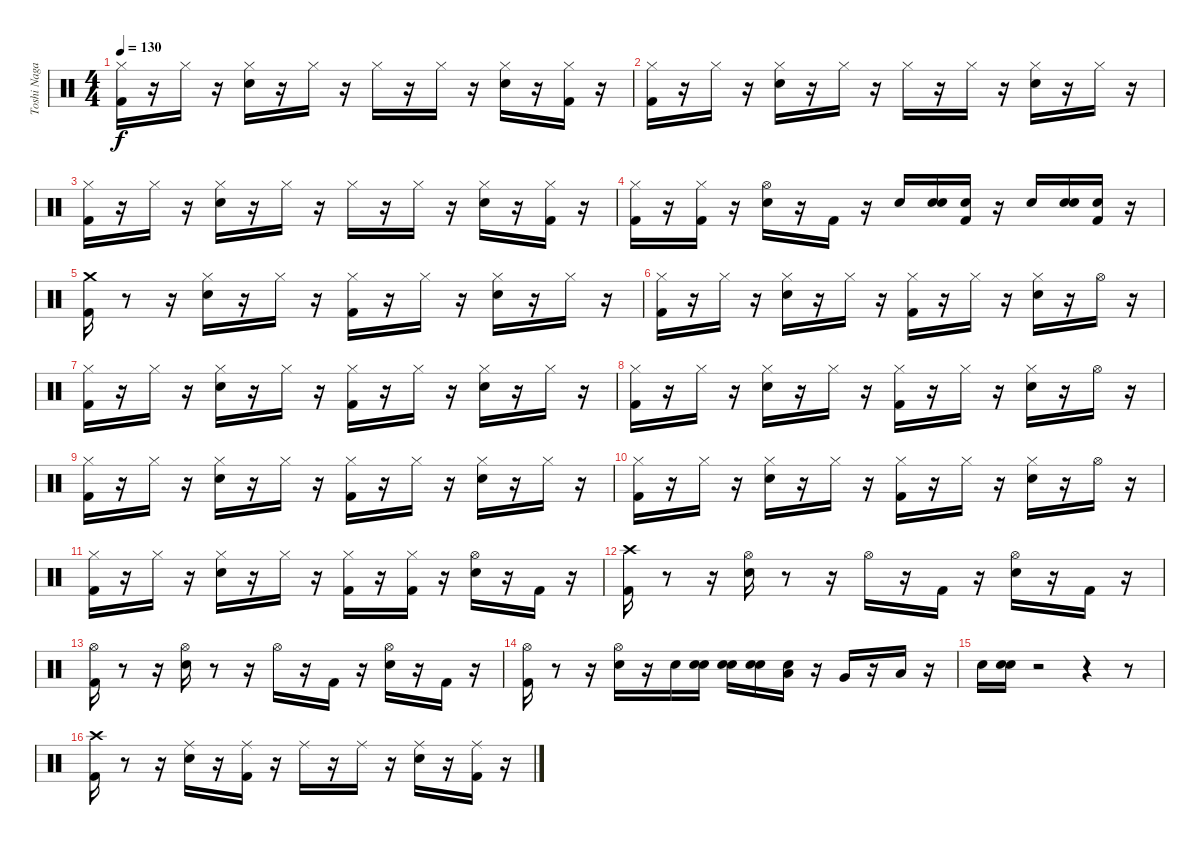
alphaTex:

\track ("Toshi Nagai" "Toshi Naga") {instrument percussion}
\staff {score}
\articulation defaults
\ts (4 4)
\tempo 130
\clef neutral
\ks c
("Kick (hit) 2" "Hi-Hat (closed)").16{dy f} r.16 "Hi-Hat (closed)".16 r.16 ("Electric Snare (hit)" "Hi-Hat (closed)").16 r.16 "Hi-Hat (closed)".16 r.16 "Hi-Hat (closed)".16 r.16 "Hi-Hat (closed)".16 r.16 ("Electric Snare (hit)" "Hi-Hat (closed)").16 r.16 ("Kick (hit) 2" "Hi-Hat (closed)").16 r.16 |
("Kick (hit) 2" "Hi-Hat (closed)").16 r.16 "Hi-Hat (closed)".16 r.16 ("Electric Snare (hit)" "Hi-Hat (closed)").16 r.16 "Hi-Hat (closed)".16 r.16 "Hi-Hat (closed)".16 r.16 "Hi-Hat (closed)".16 r.16 ("Electric Snare (hit)" "Hi-Hat (closed)").16 r.16 "Hi-Hat (closed)".16 r.16 |
("Kick (hit) 2" "Hi-Hat (closed)").16 r.16 "Hi-Hat (closed)".16 r.16 ("Electric Snare (hit)" "Hi-Hat (closed)").16 r.16 "Hi-Hat (closed)".16 r.16 "Hi-Hat (closed)".16 r.16 "Hi-Hat (closed)".16 r.16 ("Electric Snare (hit)" "Hi-Hat (closed)").16 r.16 ("Kick (hit) 2" "Hi-Hat (closed)").16 r.16 |
("Hi-Hat (closed)" "Kick (hit) 2").16 r.16 ("Hi-Hat (closed)" "Kick (hit) 2").16 r.16 ("Hi-Hat (open)" "Electric Snare (hit)").16 r.16 "Kick (hit) 2".16 r.16 "Electric Snare (hit)".16 ("Snare (hit)" "Electric Snare (hit)").16 ("Snare (hit)" "Kick (hit) 2").16 r.16 "Electric Snare (hit)".16 ("Snare (hit)" "Electric Snare (hit)").16 ("Snare (hit)" "Kick (hit) 2").16 r.16 |
("Crash medium (hit)" "Kick (hit) 2").16 r.8 r.16 ("Electric Snare (hit)" "Hi-Hat (closed)").16 r.16 "Hi-Hat (closed)".16 r.16 ("Kick (hit) 2" "Hi-Hat (closed)").16 r.16 "Hi-Hat (closed)".16 r.16 ("Electric Snare (hit)" "Hi-Hat (closed)").16 r.16 "Hi-Hat (closed)".16 r.16 |
("Kick (hit) 2" "Hi-Hat (closed)").16 r.16 "Hi-Hat (closed)".16 r.16 ("Electric Snare (hit)" "Hi-Hat (closed)").16 r.16 "Hi-Hat (closed)".16 r.16 ("Kick (hit) 2" "Hi-Hat (closed)").16 r.16 "Hi-Hat (closed)".16 r.16 ("Electric Snare (hit)" "Hi-Hat (closed)").16 r.16 "Hi-Hat (open)".16 r.16 |
("Kick (hit) 2" "Hi-Hat (closed)").16 r.16 "Hi-Hat (closed)".16 r.16 ("Electric Snare (hit)" "Hi-Hat (closed)").16 r.16 "Hi-Hat (closed)".16 r.16 ("Kick (hit) 2" "Hi-Hat (closed)").16 r.16 "Hi-Hat (closed)".16 r.16 ("Electric Snare (hit)" "Hi-Hat (closed)").16 r.16 "Hi-Hat (closed)".16 r.16 |
("Kick (hit) 2" "Hi-Hat (closed)").16 r.16 "Hi-Hat (closed)".16 r.16 ("Electric Snare (hit)" "Hi-Hat (closed)").16 r.16 "Hi-Hat (closed)".16 r.16 ("Kick (hit) 2" "Hi-Hat (closed)").16 r.16 "Hi-Hat (closed)".16 r.16 ("Electric Snare (hit)" "Hi-Hat (closed)").16 r.16 "Hi-Hat (open)".16 r.16 |
("Kick (hit) 2" "Hi-Hat (closed)").16 r.16 "Hi-Hat (closed)".16 r.16 ("Electric Snare (hit)" "Hi-Hat (closed)").16 r.16 "Hi-Hat (closed)".16 r.16 ("Kick (hit) 2" "Hi-Hat (closed)").16 r.16 "Hi-Hat (closed)".16 r.16 ("Electric Snare (hit)" "Hi-Hat (closed)").16 r.16 "Hi-Hat (closed)".16 r.16 |
("Kick (hit) 2" "Hi-Hat (closed)").16 r.16 "Hi-Hat (closed)".16 r.16 ("Electric Snare (hit)" "Hi-Hat (closed)").16 r.16 "Hi-Hat (closed)".16 r.16 ("Kick (hit) 2" "Hi-Hat (closed)").16 r.16 "Hi-Hat (closed)".16 r.16 ("Electric Snare (hit)" "Hi-Hat (closed)").16 r.16 "Hi-Hat (open)".16 r.16 |
("Kick (hit) 2" "Hi-Hat (closed)").16 r.16 "Hi-Hat (closed)".16 r.16 ("Electric Snare (hit)" "Hi-Hat (closed)").16 r.16 "Hi-Hat (closed)".16 r.16 ("Kick (hit) 2" "Hi-Hat (closed)").16 r.16 ("Kick (hit) 2" "Hi-Hat (closed)").16 r.16 ("Electric Snare (hit)" "Hi-Hat (open)").16 r.16 "Kick (hit) 2".16 r.16 |
("Crash high (hit)" "Kick (hit) 2").16 r.8 r.16 ("Electric Snare (hit)" "Hi-Hat (open)").16 r.8 r.16 "Hi-Hat (open)".16 r.16 "Kick (hit) 2".16 r.16 ("Hi-Hat (open)" "Electric Snare (hit)").16 r.16 "Kick (hit) 2".16 r.16 |
("Hi-Hat (open)" "Kick (hit) 2").16 r.8 r.16 ("Electric Snare (hit)" "Hi-Hat (open)").16 r.8 r.16 "Hi-Hat (open)".16 r.16 "Kick (hit) 2".16 r.16 ("Hi-Hat (open)" "Electric Snare (hit)").16 r.16 "Kick (hit) 2".16 r.16 |
("Kick (hit) 2" "Hi-Hat (open)").16 r.8 r.16 ("Hi-Hat (open)" "Electric Snare (hit)").16 r.16 "Electric Snare (hit)".16 ("Snare (hit)" "Electric Snare (hit)").16 ("Snare (hit)" "Electric Snare (hit)").16 ("Snare (hit)" "Electric Snare (hit)").16 ("Snare (hit)" "Low Tom (hit)").16 r.16 "Very Low Tom (hit)".16 r.16 "Low Floor Tom (hit)".16 r.16 |
"Electric Snare (hit)".16 ("Snare (hit)" "Electric Snare (hit)").16 r.2 r.4 r.8 |
("Crash high (hit)" "Kick (hit) 2").16 r.8 r.16 ("Electric Snare (hit)" "Ride (middle)").16 r.16 ("Kick (hit) 2" "Ride (middle)").16 r.16 "Ride (middle)".16 r.16 "Ride (middle)".16 r.16 ("Electric Snare (hit)" "Ride (middle)").16 r.16 ("Kick (hit) 2" "Ride (middle)").16 r.16
